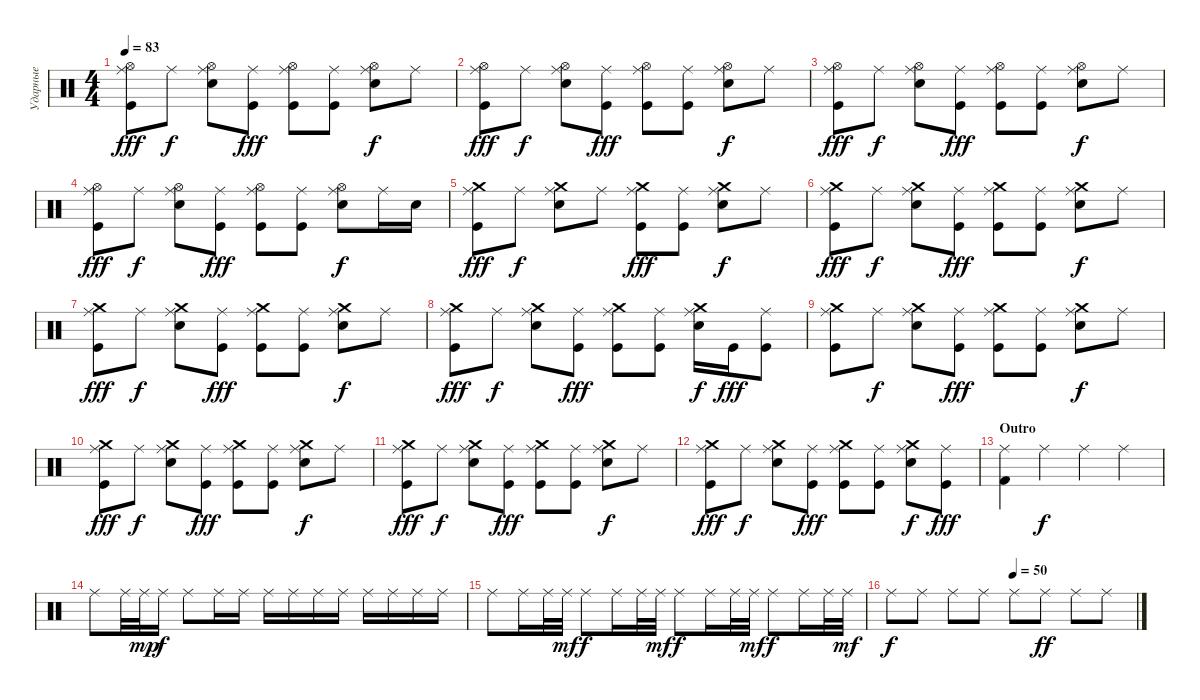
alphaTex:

\track ("Ударные" "Ударные") {instrument percussion}
\staff {score}
\articulation defaults
\ts (4 4)
\tempo 83
\clef neutral
\ks c
("Kick (hit)" "Hi-Hat (open)" "Ride (middle)").8{dy fff} "Ride (middle)".8{dy f} ("Electric Snare (hit)" "Hi-Hat (open)" "Ride (middle)").8 ("Kick (hit)" "Ride (middle)").8{dy fff} ("Kick (hit)" "Hi-Hat (open)" "Ride (middle)").8 ("Kick (hit)" "Ride (middle)").8 ("Electric Snare (hit)" "Hi-Hat (open)" "Ride (middle)").8{dy f} "Ride (middle)".8 |
("Kick (hit)" "Hi-Hat (open)" "Ride (middle)").8{dy fff} "Ride (middle)".8{dy f} ("Electric Snare (hit)" "Hi-Hat (open)" "Ride (middle)").8 ("Kick (hit)" "Ride (middle)").8{dy fff} ("Kick (hit)" "Hi-Hat (open)" "Ride (middle)").8 ("Kick (hit)" "Ride (middle)").8 ("Electric Snare (hit)" "Hi-Hat (open)" "Ride (middle)").8{dy f} "Ride (middle)".8 |
("Kick (hit)" "Hi-Hat (open)" "Ride (middle)").8{dy fff} "Ride (middle)".8{dy f} ("Electric Snare (hit)" "Hi-Hat (open)" "Ride (middle)").8 ("Kick (hit)" "Ride (middle)").8{dy fff} ("Kick (hit)" "Hi-Hat (open)" "Ride (middle)").8 ("Kick (hit)" "Ride (middle)").8 ("Electric Snare (hit)" "Hi-Hat (open)" "Ride (middle)").8{dy f} "Ride (middle)".8 |
("Kick (hit)" "Hi-Hat (open)" "Ride (middle)").8{dy fff} "Ride (middle)".8{dy f} ("Electric Snare (hit)" "Hi-Hat (open)" "Ride (middle)").8 ("Kick (hit)" "Ride (middle)").8{dy fff} ("Kick (hit)" "Hi-Hat (open)" "Ride (middle)").8 ("Kick (hit)" "Ride (middle)").8 ("Electric Snare (hit)" "Hi-Hat (open)" "Ride (middle)").8{dy f} "Ride (middle)".16 "Electric Snare (hit)".16 |
("Kick (hit)" "Crash medium (hit)" "Ride (middle)").8{dy fff} "Ride (middle)".8{dy f} ("Electric Snare (hit)" "Crash medium (hit)" "Ride (middle)").8 "Ride (middle)".8 ("Kick (hit)" "Crash medium (hit)" "Ride (middle)").8{dy fff} ("Kick (hit)" "Ride (middle)").8 ("Electric Snare (hit)" "Crash medium (hit)" "Ride (middle)").8{dy f} "Ride (middle)".8 |
("Kick (hit)" "Crash medium (hit)" "Ride (middle)").8{dy fff} "Ride (middle)".8{dy f} ("Electric Snare (hit)" "Crash medium (hit)" "Ride (middle)").8 ("Kick (hit)" "Ride (middle)").8{dy fff} ("Kick (hit)" "Crash medium (hit)" "Ride (middle)").8 ("Kick (hit)" "Ride (middle)").8 ("Electric Snare (hit)" "Crash medium (hit)" "Ride (middle)").8{dy f} "Ride (middle)".8 |
("Kick (hit)" "Crash medium (hit)" "Ride (middle)").8{dy fff} "Ride (middle)".8{dy f} ("Electric Snare (hit)" "Crash medium (hit)" "Ride (middle)").8 ("Kick (hit)" "Ride (middle)").8{dy fff} ("Kick (hit)" "Crash medium (hit)" "Ride (middle)").8 ("Kick (hit)" "Ride (middle)").8 ("Electric Snare (hit)" "Crash medium (hit)" "Ride (middle)").8{dy f} "Ride (middle)".8 |
("Kick (hit)" "Crash medium (hit)" "Ride (middle)").8{dy fff} "Ride (middle)".8{dy f} ("Electric Snare (hit)" "Crash medium (hit)" "Ride (middle)").8 ("Kick (hit)" "Ride (middle)").8{dy fff} ("Kick (hit)" "Crash medium (hit)" "Ride (middle)").8 ("Kick (hit)" "Ride (middle)").8 ("Electric Snare (hit)" "Crash medium (hit)" "Ride (middle)").16{dy f} "Kick (hit)".16{dy fff} ("Kick (hit)" "Ride (middle)").8 |
("Kick (hit)" "Crash medium (hit)" "Ride (middle)").8 "Ride (middle)".8{dy f} ("Electric Snare (hit)" "Crash medium (hit)" "Ride (middle)").8 ("Kick (hit)" "Ride (middle)").8{dy fff} ("Kick (hit)" "Crash medium (hit)" "Ride (middle)").8 ("Kick (hit)" "Ride (middle)").8 ("Electric Snare (hit)" "Crash medium (hit)" "Ride (middle)").8{dy f} "Ride (middle)".8 |
("Kick (hit)" "Crash medium (hit)" "Ride (middle)").8{dy fff} "Ride (middle)".8{dy f} ("Electric Snare (hit)" "Crash medium (hit)" "Ride (middle)").8 ("Kick (hit)" "Ride (middle)").8{dy fff} ("Kick (hit)" "Crash medium (hit)" "Ride (middle)").8 ("Kick (hit)" "Ride (middle)").8 ("Electric Snare (hit)" "Crash medium (hit)" "Ride (middle)").8{dy f} "Ride (middle)".8 |
("Kick (hit)" "Crash medium (hit)" "Ride (middle)").8{dy fff} "Ride (middle)".8{dy f} ("Electric Snare (hit)" "Crash medium (hit)" "Ride (middle)").8 ("Kick (hit)" "Ride (middle)").8{dy fff} ("Kick (hit)" "Crash medium (hit)" "Ride (middle)").8 ("Kick (hit)" "Ride (middle)").8 ("Electric Snare (hit)" "Crash medium (hit)" "Ride (middle)").8{dy f} "Ride (middle)".8 |
("Kick (hit)" "Crash medium (hit)" "Ride (middle)").8{dy fff} "Ride (middle)".8{dy f} ("Electric Snare (hit)" "Crash medium (hit)" "Ride (middle)").8 ("Kick (hit)" "Ride (middle)").8{dy fff} ("Kick (hit)" "Crash medium (hit)" "Ride (middle)").8 ("Kick (hit)" "Ride (middle)").8 ("Electric Snare (hit)" "Crash medium (hit)" "Ride (middle)").8{dy f} ("Kick (hit)" "Ride (middle)").8{dy fff} |
\section ("" "Outro")
("Kick (hit) 2" "Ride (middle)").4 "Ride (middle)".4{dy f} "Ride (middle)".4 "Ride (middle)".4 |
"Ride (middle)".8 "Ride (middle)".32 "Ride (middle)".32{dy mp} "Ride (middle)".16{dy f} "Ride (middle)".8 "Ride (middle)".16 "Ride (middle)".16 "Ride (middle)".16 "Ride (middle)".16 "Ride (middle)".16 "Ride (middle)".16 "Ride (middle)".16 "Ride (middle)".16 "Ride (middle)".16 "Ride (middle)".16 |
"Ride (middle)".8 "Ride (middle)".16 "Ride (middle)".32 "Ride (middle)".32{dy mf} "Ride (middle)".8{dy f} "Ride (middle)".16 "Ride (middle)".32 "Ride (middle)".32{dy mf} "Ride (middle)".8{dy f} "Ride (middle)".16 "Ride (middle)".32 "Ride (middle)".32{dy mf} "Ride (middle)".8{dy f} "Ride (middle)".16 "Ride (middle)".32 "Ride (middle)".32{dy mf} |
\tempo (50 0.5)
"Ride (middle)".8{dy f} "Ride (middle)".8 "Ride (middle)".8 "Ride (middle)".8 "Ride (middle)".8 "Ride (middle)".8{dy ff} "Ride (middle)".8 "Ride (middle)".8
